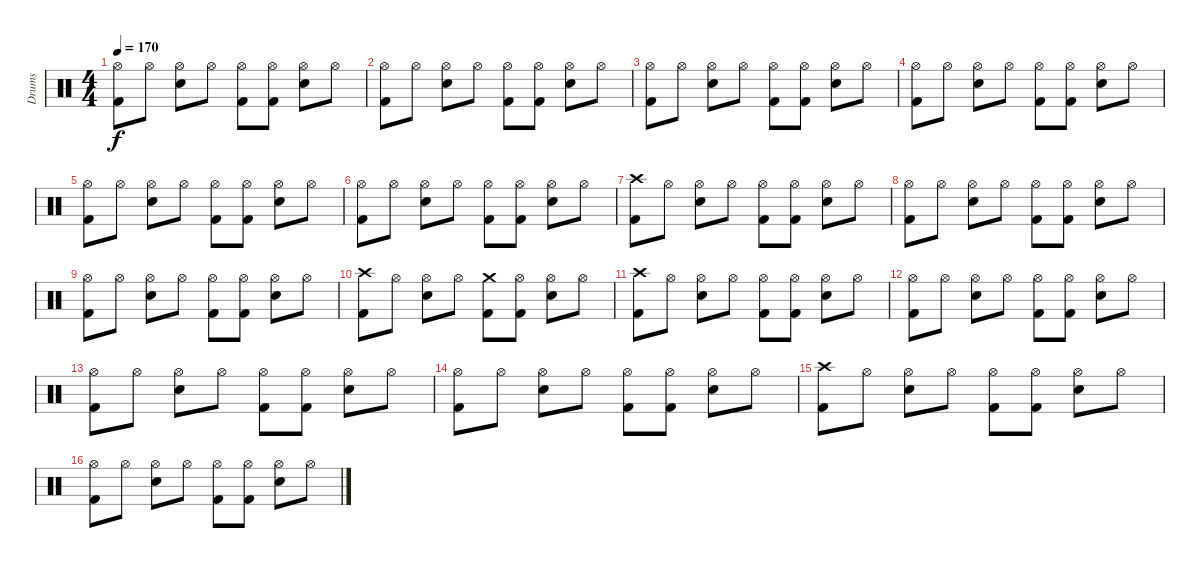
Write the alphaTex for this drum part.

\track ("Drums" "Drums") {instrument percussion}
\staff {score}
\articulation defaults
\ts (4 4)
\tempo 170
\clef neutral
\ks c
("Hi-Hat (open)" "Kick (hit) 2").8{dy f} "Hi-Hat (open)".8 ("Hi-Hat (open)" "Snare (hit) 2").8 "Hi-Hat (open)".8 ("Hi-Hat (open)" "Kick (hit) 2").8 ("Hi-Hat (open)" "Kick (hit) 2").8 ("Hi-Hat (open)" "Snare (hit) 2").8 "Hi-Hat (open)".8 |
("Hi-Hat (open)" "Kick (hit) 2").8 "Hi-Hat (open)".8 ("Hi-Hat (open)" "Snare (hit) 2").8 "Hi-Hat (open)".8 ("Hi-Hat (open)" "Kick (hit) 2").8 ("Hi-Hat (open)" "Kick (hit) 2").8 ("Hi-Hat (open)" "Snare (hit) 2").8 "Hi-Hat (open)".8 |
("Hi-Hat (open)" "Kick (hit) 2").8 "Hi-Hat (open)".8 ("Hi-Hat (open)" "Snare (hit) 2").8 "Hi-Hat (open)".8 ("Hi-Hat (open)" "Kick (hit) 2").8 ("Hi-Hat (open)" "Kick (hit) 2").8 ("Hi-Hat (open)" "Snare (hit) 2").8 "Hi-Hat (open)".8 |
("Hi-Hat (open)" "Kick (hit) 2").8 "Hi-Hat (open)".8 ("Hi-Hat (open)" "Snare (hit) 2").8 "Hi-Hat (open)".8 ("Hi-Hat (open)" "Kick (hit) 2").8 ("Hi-Hat (open)" "Kick (hit) 2").8 ("Hi-Hat (open)" "Snare (hit) 2").8 "Hi-Hat (open)".8 |
("Hi-Hat (open)" "Kick (hit) 2").8 "Hi-Hat (open)".8 ("Hi-Hat (open)" "Snare (hit) 2").8 "Hi-Hat (open)".8 ("Hi-Hat (open)" "Kick (hit) 2").8 ("Hi-Hat (open)" "Kick (hit) 2").8 ("Hi-Hat (open)" "Snare (hit) 2").8 "Hi-Hat (open)".8 |
("Hi-Hat (open)" "Kick (hit) 2").8 "Hi-Hat (open)".8 ("Hi-Hat (open)" "Snare (hit) 2").8 "Hi-Hat (open)".8 ("Hi-Hat (open)" "Kick (hit) 2").8 ("Hi-Hat (open)" "Kick (hit) 2").8 ("Hi-Hat (open)" "Snare (hit) 2").8 "Hi-Hat (open)".8 |
("Crash high (hit)" "Kick (hit) 2").8 "Hi-Hat (open)".8 ("Hi-Hat (open)" "Snare (hit) 2").8 "Hi-Hat (open)".8 ("Hi-Hat (open)" "Kick (hit) 2").8 ("Hi-Hat (open)" "Kick (hit) 2").8 ("Hi-Hat (open)" "Snare (hit) 2").8 "Hi-Hat (open)".8 |
("Hi-Hat (open)" "Kick (hit) 2").8 "Hi-Hat (open)".8 ("Hi-Hat (open)" "Snare (hit) 2").8 "Hi-Hat (open)".8 ("Hi-Hat (open)" "Kick (hit) 2").8 ("Hi-Hat (open)" "Kick (hit) 2").8 ("Hi-Hat (open)" "Snare (hit) 2").8 "Hi-Hat (open)".8 |
("Hi-Hat (open)" "Kick (hit) 2").8 "Hi-Hat (open)".8 ("Hi-Hat (open)" "Snare (hit) 2").8 "Hi-Hat (open)".8 ("Hi-Hat (open)" "Kick (hit) 2").8 ("Hi-Hat (open)" "Kick (hit) 2").8 ("Hi-Hat (open)" "Snare (hit) 2").8 "Hi-Hat (open)".8 |
("Crash high (hit)" "Kick (hit) 2").8 "Hi-Hat (open)".8 ("Hi-Hat (open)" "Snare (hit) 2").8 "Hi-Hat (open)".8 ("Crash medium (hit)" "Kick (hit) 2").8 ("Hi-Hat (open)" "Kick (hit) 2").8 ("Hi-Hat (open)" "Snare (hit) 2").8 "Hi-Hat (open)".8 |
("Crash high (hit)" "Kick (hit) 2").8 "Hi-Hat (open)".8 ("Hi-Hat (open)" "Snare (hit) 2").8 "Hi-Hat (open)".8 ("Hi-Hat (open)" "Kick (hit) 2").8 ("Hi-Hat (open)" "Kick (hit) 2").8 ("Hi-Hat (open)" "Snare (hit) 2").8 "Hi-Hat (open)".8 |
("Hi-Hat (open)" "Kick (hit) 2").8 "Hi-Hat (open)".8 ("Hi-Hat (open)" "Snare (hit) 2").8 "Hi-Hat (open)".8 ("Hi-Hat (open)" "Kick (hit) 2").8 ("Hi-Hat (open)" "Kick (hit) 2").8 ("Hi-Hat (open)" "Snare (hit) 2").8 "Hi-Hat (open)".8 |
("Hi-Hat (open)" "Kick (hit) 2").8 "Hi-Hat (open)".8 ("Hi-Hat (open)" "Snare (hit) 2").8 "Hi-Hat (open)".8 ("Hi-Hat (open)" "Kick (hit) 2").8 ("Hi-Hat (open)" "Kick (hit) 2").8 ("Hi-Hat (open)" "Snare (hit) 2").8 "Hi-Hat (open)".8 |
("Hi-Hat (open)" "Kick (hit) 2").8 "Hi-Hat (open)".8 ("Hi-Hat (open)" "Snare (hit) 2").8 "Hi-Hat (open)".8 ("Hi-Hat (open)" "Kick (hit) 2").8 ("Hi-Hat (open)" "Kick (hit) 2").8 ("Hi-Hat (open)" "Snare (hit) 2").8 "Hi-Hat (open)".8 |
("Crash high (hit)" "Kick (hit) 2").8 "Hi-Hat (open)".8 ("Hi-Hat (open)" "Snare (hit) 2").8 "Hi-Hat (open)".8 ("Hi-Hat (open)" "Kick (hit) 2").8 ("Hi-Hat (open)" "Kick (hit) 2").8 ("Hi-Hat (open)" "Snare (hit) 2").8 "Hi-Hat (open)".8 |
("Hi-Hat (open)" "Kick (hit) 2").8 "Hi-Hat (open)".8 ("Hi-Hat (open)" "Snare (hit) 2").8 "Hi-Hat (open)".8 ("Hi-Hat (open)" "Kick (hit) 2").8 ("Hi-Hat (open)" "Kick (hit) 2").8 ("Hi-Hat (open)" "Snare (hit) 2").8 "Hi-Hat (open)".8
